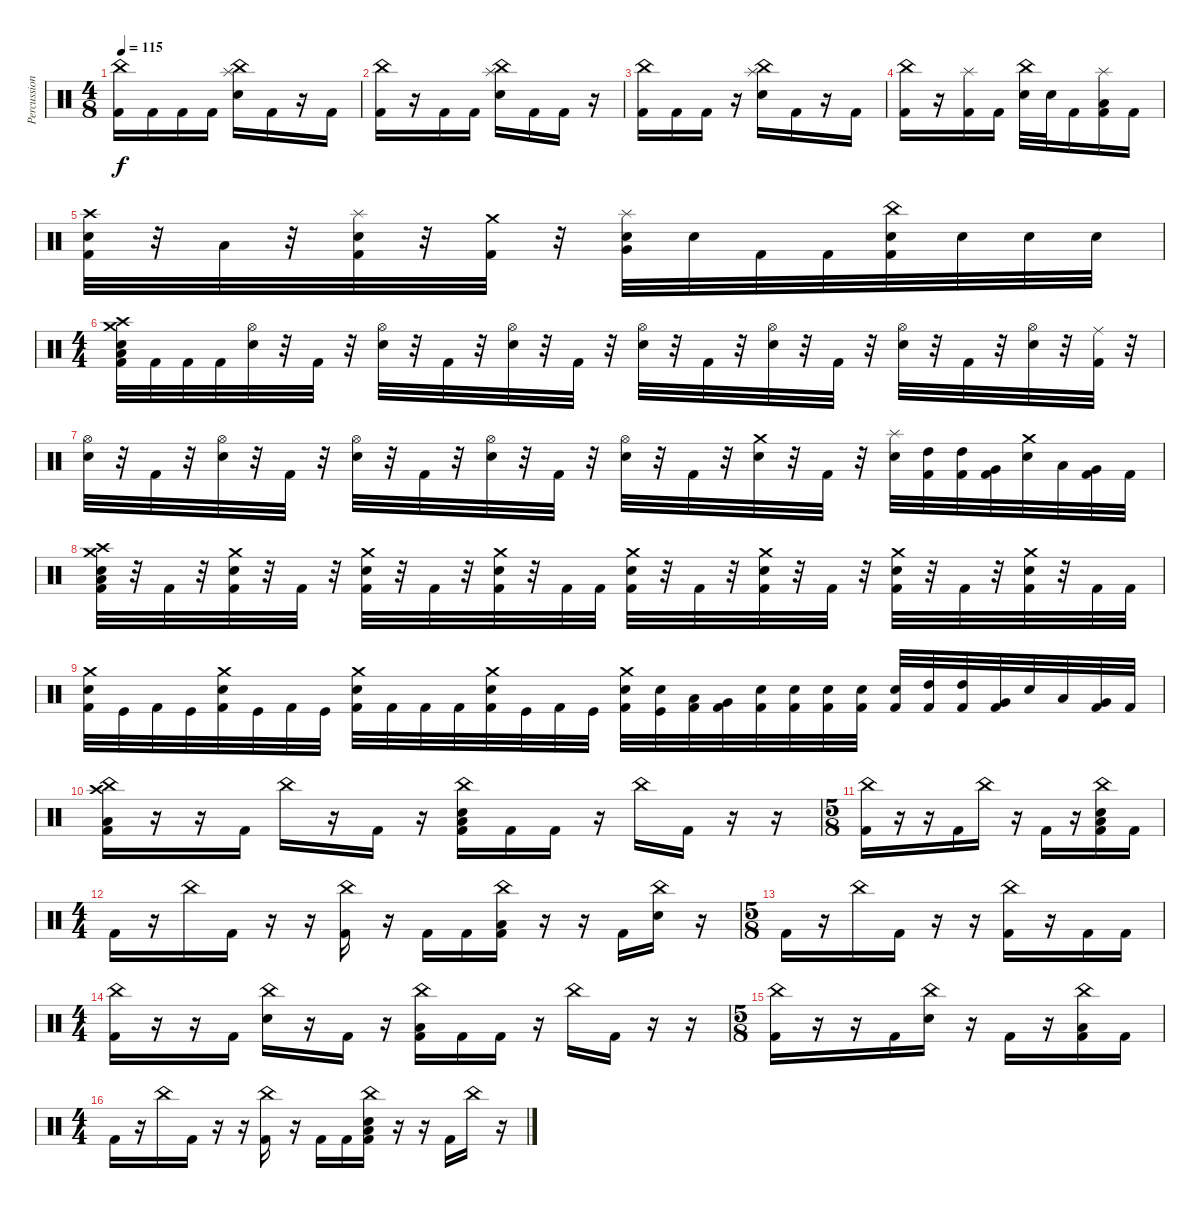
\track ("Percussion" "Percussion") {instrument percussion}
\staff {score}
\articulation defaults
\ts (4 8)
\tempo 115
\clef neutral
\ks c
("China (hit)" "Kick (hit) 2").16{dy f} "Kick (hit) 2".16 "Kick (hit) 2".16 "Kick (hit) 2".16 ("China (hit)" "Splash (hit)" "Electric Snare (hit)").16 "Kick (hit) 2".16 r.16 "Kick (hit) 2".16 |
("China (hit)" "Kick (hit) 2").16 r.16 "Kick (hit) 2".16 "Kick (hit) 2".16 ("China (hit)" "Splash (hit)" "Electric Snare (hit)").16 "Kick (hit) 2".16 "Kick (hit) 2".16 r.16 |
("China (hit)" "Kick (hit) 2").16 "Kick (hit) 2".16 "Kick (hit) 2".16 r.16 ("China (hit)" "Splash (hit)" "Electric Snare (hit)").16 "Kick (hit) 2".16 r.16 "Kick (hit) 2".16 |
("China (hit)" "Kick (hit) 2").16 r.16 ("Splash (hit)" "Kick (hit) 2").16 "Kick (hit) 2".16 ("China (hit)" "Electric Snare (hit)").32 "Electric Snare (hit)".32 "Kick (hit) 2".16 ("Splash (hit)" "Low Tom (hit)" "Kick (hit) 2").16 "Kick (hit) 2".16 |
("Crash high (hit)" "Electric Snare (hit)" "Kick (hit) 2").32 r.32 "Low Tom (hit)".32 r.32 ("Splash (hit)" "Electric Snare (hit)" "Kick (hit) 2").32 r.32 ("Crash medium (hit)" "Kick (hit) 2").32 r.32 ("Splash (hit)" "Electric Snare (hit)" "Very Low Tom (hit)").32 "Electric Snare (hit)".32 "Kick (hit) 2".32 "Kick (hit) 2".32 ("China (hit)" "Electric Snare (hit)" "Kick (hit) 2").32 "Electric Snare (hit)".32 "Electric Snare (hit)".32 "Electric Snare (hit)".32 |
\ts (4 4)
("Crash high (hit)" "Crash medium (hit)" "Electric Snare (hit)" "Low Floor Tom (hit)" "Kick (hit) 2").32 "Kick (hit) 2".32 "Kick (hit) 2".32 "Kick (hit) 2".32 ("Hi-Hat (open)" "Electric Snare (hit)").32 r.32 "Kick (hit) 2".32 r.32 ("Hi-Hat (open)" "Electric Snare (hit)").32 r.32 "Kick (hit) 2".32 r.32 ("Hi-Hat (open)" "Electric Snare (hit)").32 r.32 "Kick (hit) 2".32 r.32 ("Hi-Hat (open)" "Electric Snare (hit)").32 r.32 "Kick (hit) 2".32 r.32 ("Hi-Hat (open)" "Electric Snare (hit)").32 r.32 "Kick (hit) 2".32 r.32 ("Hi-Hat (open)" "Electric Snare (hit)").32 r.32 "Kick (hit) 2".32 r.32 ("Hi-Hat (open)" "Electric Snare (hit)").32 r.32 ("Ride (middle)" "Kick (hit) 2").32 r.32 |
("Hi-Hat (open)" "Electric Snare (hit)").32 r.32 "Kick (hit) 2".32 r.32 ("Hi-Hat (open)" "Electric Snare (hit)").32 r.32 "Kick (hit) 2".32 r.32 ("Hi-Hat (open)" "Electric Snare (hit)").32 r.32 "Kick (hit) 2".32 r.32 ("Hi-Hat (open)" "Electric Snare (hit)").32 r.32 "Kick (hit) 2".32 r.32 ("Hi-Hat (open)" "Electric Snare (hit)").32 r.32 "Kick (hit) 2".32 r.32 ("Crash medium (hit)" "Electric Snare (hit)").32 r.32 "Kick (hit) 2".32 r.32 ("Splash (hit)" "Electric Snare (hit)").32 ("High Tom (hit)" "Kick (hit) 2").32 ("High Tom (hit)" "Kick (hit) 2").32 ("Very Low Tom (hit)" "Kick (hit) 2").32 ("Crash medium (hit)" "Electric Snare (hit)").32 "Low Tom (hit)".32 ("Very Low Tom (hit)" "Kick (hit) 2").32 "Kick (hit) 2".32 |
("Crash high (hit)" "Crash medium (hit)" "Electric Snare (hit)" "Low Floor Tom (hit)" "Kick (hit) 2").32 r.32 "Kick (hit) 2".32 r.32 ("Crash medium (hit)" "Electric Snare (hit)" "Kick (hit) 2").32 r.32 "Kick (hit) 2".32 r.32 ("Crash medium (hit)" "Electric Snare (hit)" "Kick (hit) 2").32 r.32 "Kick (hit) 2".32 r.32 ("Crash medium (hit)" "Electric Snare (hit)" "Kick (hit) 2").32 r.32 "Kick (hit) 2".32 "Kick (hit) 2".32 ("Crash medium (hit)" "Electric Snare (hit)" "Kick (hit) 2").32 r.32 "Kick (hit) 2".32 r.32 ("Crash medium (hit)" "Electric Snare (hit)" "Kick (hit) 2").32 r.32 "Kick (hit) 2".32 r.32 ("Crash medium (hit)" "Electric Snare (hit)" "Kick (hit) 2").32 r.32 "Kick (hit) 2".32 r.32 ("Crash medium (hit)" "Electric Snare (hit)" "Kick (hit) 2").32 r.32 "Kick (hit) 2".32 "Kick (hit) 2".32 |
("Crash medium (hit)" "Electric Snare (hit)" "Kick (hit) 2").32 "Kick (hit)".32 "Kick (hit) 2".32 "Kick (hit)".32 ("Crash medium (hit)" "Electric Snare (hit)" "Kick (hit) 2").32 "Kick (hit)".32 "Kick (hit) 2".32 "Kick (hit)".32 ("Crash medium (hit)" "Electric Snare (hit)" "Kick (hit) 2").32 "Kick (hit) 2".32 "Kick (hit) 2".32 "Kick (hit) 2".32 ("Crash medium (hit)" "Electric Snare (hit)" "Kick (hit) 2").32 "Kick (hit)".32 "Kick (hit) 2".32 "Kick (hit)".32 ("Crash medium (hit)" "Electric Snare (hit)" "Kick (hit) 2").32 ("Electric Snare (hit)" "Kick (hit)").32 ("Low Tom (hit)" "Kick (hit) 2").32 ("Very Low Tom (hit)" "Kick (hit) 2").32 ("Electric Snare (hit)" "Kick (hit) 2").32 ("Electric Snare (hit)" "Kick (hit) 2").32 ("Electric Snare (hit)" "Kick (hit) 2").32 ("Electric Snare (hit)" "Kick (hit) 2").32 ("Electric Snare (hit)" "Kick (hit) 2").32 ("High Tom (hit)" "Kick (hit) 2").32 ("High Tom (hit)" "Kick (hit) 2").32 ("Very Low Tom (hit)" "Kick (hit) 2").32 "Electric Snare (hit)".32 "Low Tom (hit)".32 ("Very Low Tom (hit)" "Kick (hit) 2").32 "Kick (hit) 2".32 |
("China (hit)" "Crash high (hit)" "Low Floor Tom (hit)" "Kick (hit) 2").16 r.16 r.16 "Kick (hit) 2".16 "China (hit)".16 r.16 "Kick (hit) 2".16 r.16 ("China (hit)" "Electric Snare (hit)" "Low Floor Tom (hit)" "Kick (hit) 2").16 "Kick (hit) 2".16 "Kick (hit) 2".16 r.16 "China (hit)".16 "Kick (hit) 2".16 r.16 r.16 |
\ts (5 8)
("China (hit)" "Kick (hit) 2").16 r.16 r.16 "Kick (hit) 2".16 "China (hit)".16 r.16 "Kick (hit) 2".16 r.16 ("China (hit)" "Electric Snare (hit)" "Low Floor Tom (hit)" "Kick (hit) 2").16 "Kick (hit) 2".16 |
\ts (4 4)
"Kick (hit) 2".16 r.16 "China (hit)".16 "Kick (hit) 2".16 r.16 r.16 ("China (hit)" "Kick (hit) 2").16 r.16 "Kick (hit) 2".16 "Kick (hit) 2".16 ("China (hit)" "Low Floor Tom (hit)" "Kick (hit) 2").16 r.16 r.16 "Kick (hit) 2".16 ("China (hit)" "Electric Snare (hit)").16 r.16 |
\ts (5 8)
"Kick (hit) 2".16 r.16 "China (hit)".16 "Kick (hit) 2".16 r.16 r.16 ("China (hit)" "Kick (hit) 2").16 r.16 "Kick (hit) 2".16 "Kick (hit) 2".16 |
\ts (4 4)
("China (hit)" "Kick (hit) 2").16 r.16 r.16 "Kick (hit) 2".16 ("China (hit)" "Electric Snare (hit)").16 r.16 "Kick (hit) 2".16 r.16 ("China (hit)" "Low Floor Tom (hit)" "Kick (hit) 2").16 "Kick (hit) 2".16 "Kick (hit) 2".16 r.16 "China (hit)".16 "Kick (hit) 2".16 r.16 r.16 |
\ts (5 8)
("China (hit)" "Kick (hit) 2").16 r.16 r.16 "Kick (hit) 2".16 ("China (hit)" "Electric Snare (hit)").16 r.16 "Kick (hit) 2".16 r.16 ("China (hit)" "Low Floor Tom (hit)" "Kick (hit) 2").16 "Kick (hit) 2".16 |
\ts (4 4)
"Kick (hit) 2".16 r.16 "China (hit)".16 "Kick (hit) 2".16 r.16 r.16 ("China (hit)" "Kick (hit) 2").16 r.16 "Kick (hit) 2".16 "Kick (hit) 2".16 ("China (hit)" "Electric Snare (hit)" "Low Floor Tom (hit)" "Kick (hit) 2").16 r.16 r.16 "Kick (hit) 2".16 "China (hit)".16 r.16
